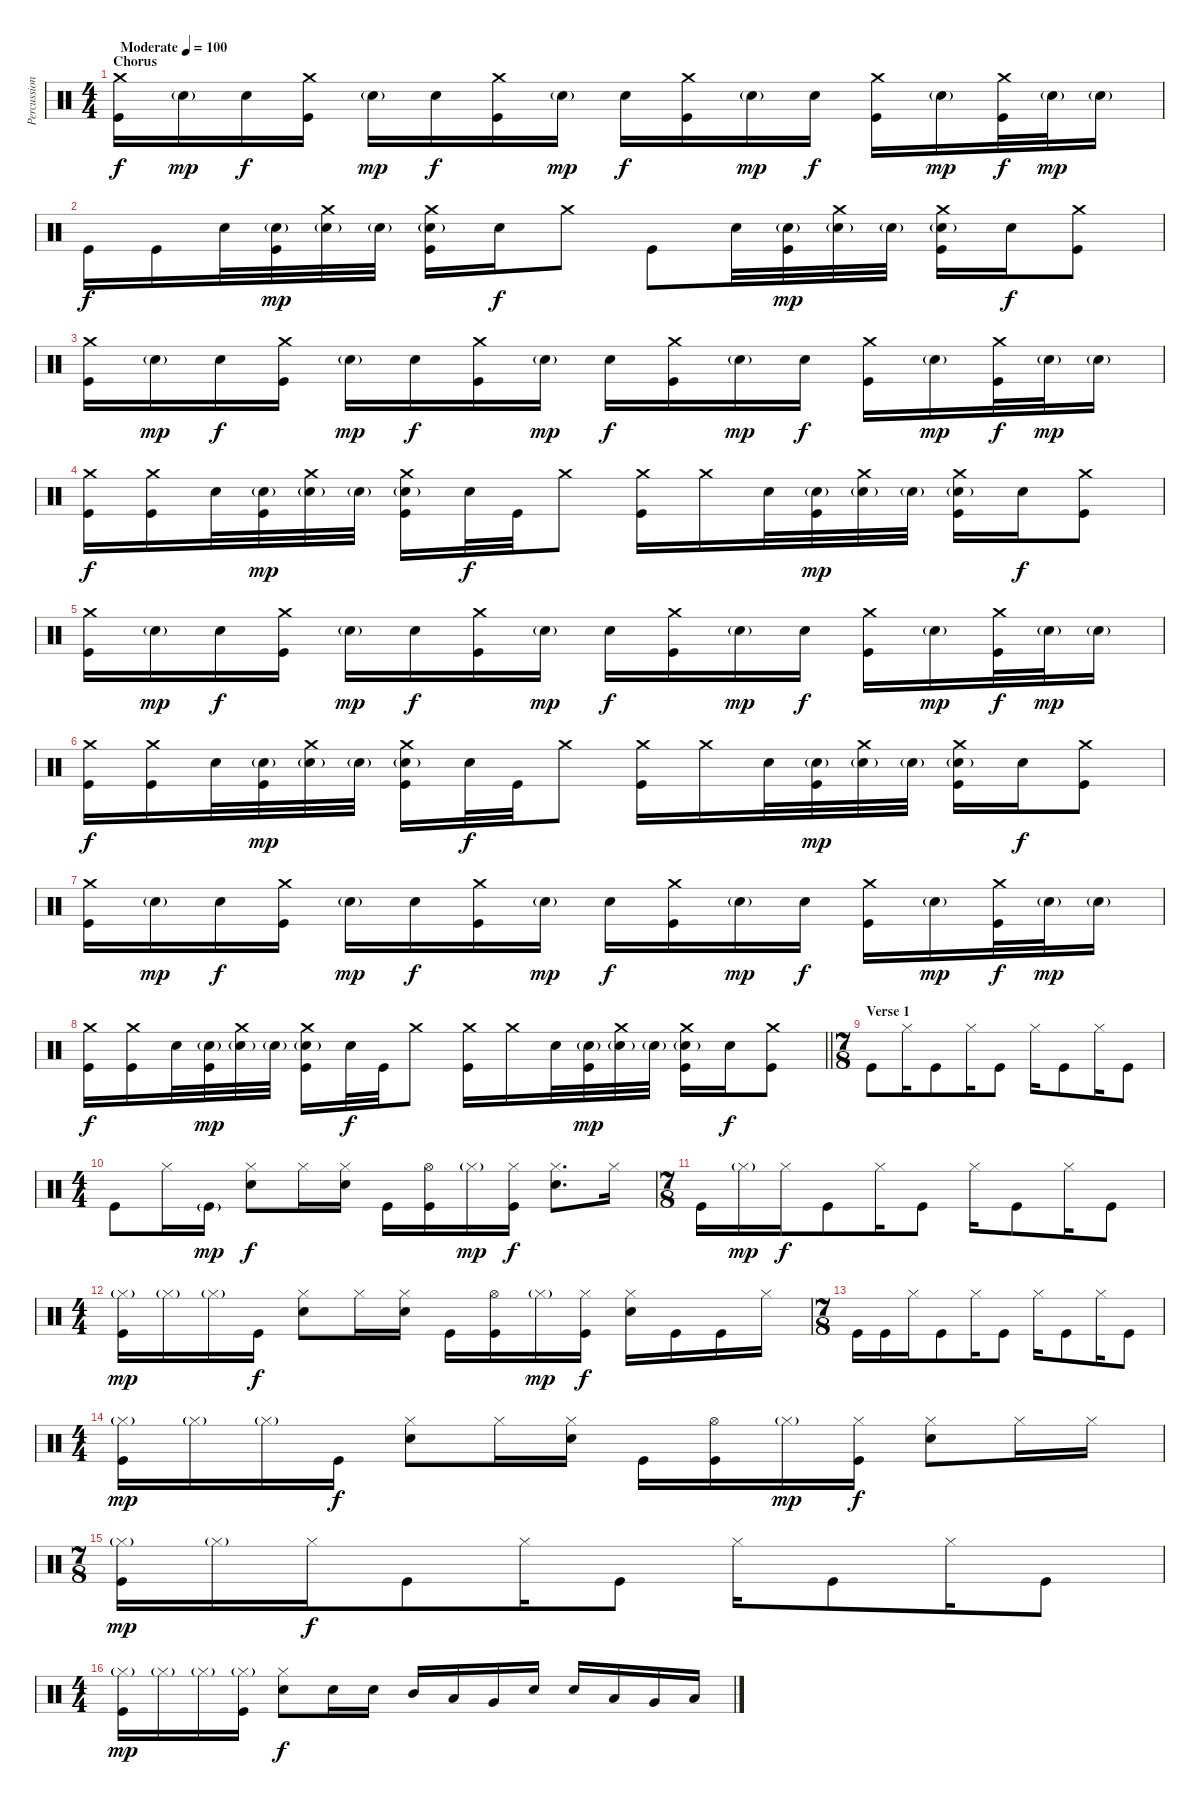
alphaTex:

\track ("Percussion" "Percussion") {instrument percussion}
\staff {score}
\articulation defaults
\ts (4 4)
\section ("" "Chorus")
\tempo (100 "Moderate")
\clef neutral
\ks c
("Crash medium (hit)" "Kick (hit)").16{dy f} "Snare (hit) 2"{g}.16{dy mp} "Snare (hit) 2".16{dy f} ("Crash medium (hit)" "Kick (hit)").16 "Snare (hit) 2"{g}.16{dy mp} "Snare (hit) 2".16{dy f} ("Crash medium (hit)" "Kick (hit)").16 "Snare (hit) 2"{g}.16{dy mp} "Snare (hit) 2".16{dy f} ("Crash medium (hit)" "Kick (hit)").16 "Snare (hit) 2"{g}.16{dy mp} "Snare (hit) 2".16{dy f} ("Crash medium (hit)" "Kick (hit)").16 "Snare (hit) 2"{g}.16{dy mp} ("Crash medium (hit)" "Kick (hit)").32{dy f} "Snare (hit) 2"{g}.32{dy mp} "Snare (hit) 2"{g}.16 |
"Kick (hit)".16{dy f} "Kick (hit)".16 "Snare (hit) 2".32 ("Snare (hit) 2"{g} "Kick (hit)").32{dy mp} ("Crash medium (hit)" "Snare (hit) 2"{g}).32 "Snare (hit) 2"{g}.32 ("Crash medium (hit)" "Snare (hit) 2"{g} "Kick (hit)").16 "Snare (hit) 2".16{dy f} "Crash medium (hit)".8 "Kick (hit)".8 "Snare (hit) 2".32 ("Snare (hit) 2"{g} "Kick (hit)").32{dy mp} ("Crash medium (hit)" "Snare (hit) 2"{g}).32 "Snare (hit) 2"{g}.32 ("Crash medium (hit)" "Snare (hit) 2"{g} "Kick (hit)").16 "Snare (hit) 2".16{dy f} ("Crash medium (hit)" "Kick (hit)").8 |
("Crash medium (hit)" "Kick (hit)").16 "Snare (hit) 2"{g}.16{dy mp} "Snare (hit) 2".16{dy f} ("Crash medium (hit)" "Kick (hit)").16 "Snare (hit) 2"{g}.16{dy mp} "Snare (hit) 2".16{dy f} ("Crash medium (hit)" "Kick (hit)").16 "Snare (hit) 2"{g}.16{dy mp} "Snare (hit) 2".16{dy f} ("Crash medium (hit)" "Kick (hit)").16 "Snare (hit) 2"{g}.16{dy mp} "Snare (hit) 2".16{dy f} ("Crash medium (hit)" "Kick (hit)").16 "Snare (hit) 2"{g}.16{dy mp} ("Crash medium (hit)" "Kick (hit)").32{dy f} "Snare (hit) 2"{g}.32{dy mp} "Snare (hit) 2"{g}.16 |
("Crash medium (hit)" "Kick (hit)").16{dy f} ("Crash medium (hit)" "Kick (hit)").16 "Snare (hit) 2".32 ("Snare (hit) 2"{g} "Kick (hit)").32{dy mp} ("Crash medium (hit)" "Snare (hit) 2"{g}).32 "Snare (hit) 2"{g}.32 ("Crash medium (hit)" "Snare (hit) 2"{g} "Kick (hit)").16 "Snare (hit) 2".32{dy f} "Kick (hit)".32 "Crash medium (hit)".8 ("Crash medium (hit)" "Kick (hit)").16 "Crash medium (hit)".16 "Snare (hit) 2".32 ("Snare (hit) 2"{g} "Kick (hit)").32{dy mp} ("Crash medium (hit)" "Snare (hit) 2"{g}).32 "Snare (hit) 2"{g}.32 ("Crash medium (hit)" "Snare (hit) 2"{g} "Kick (hit)").16 "Snare (hit) 2".16{dy f} ("Crash medium (hit)" "Kick (hit)").8 |
("Crash medium (hit)" "Kick (hit)").16 "Snare (hit) 2"{g}.16{dy mp} "Snare (hit) 2".16{dy f} ("Crash medium (hit)" "Kick (hit)").16 "Snare (hit) 2"{g}.16{dy mp} "Snare (hit) 2".16{dy f} ("Crash medium (hit)" "Kick (hit)").16 "Snare (hit) 2"{g}.16{dy mp} "Snare (hit) 2".16{dy f} ("Crash medium (hit)" "Kick (hit)").16 "Snare (hit) 2"{g}.16{dy mp} "Snare (hit) 2".16{dy f} ("Crash medium (hit)" "Kick (hit)").16 "Snare (hit) 2"{g}.16{dy mp} ("Crash medium (hit)" "Kick (hit)").32{dy f} "Snare (hit) 2"{g}.32{dy mp} "Snare (hit) 2"{g}.16 |
("Crash medium (hit)" "Kick (hit)").16{dy f} ("Crash medium (hit)" "Kick (hit)").16 "Snare (hit) 2".32 ("Snare (hit) 2"{g} "Kick (hit)").32{dy mp} ("Crash medium (hit)" "Snare (hit) 2"{g}).32 "Snare (hit) 2"{g}.32 ("Crash medium (hit)" "Snare (hit) 2"{g} "Kick (hit)").16 "Snare (hit) 2".32{dy f} "Kick (hit)".32 "Crash medium (hit)".8 ("Crash medium (hit)" "Kick (hit)").16 "Crash medium (hit)".16 "Snare (hit) 2".32 ("Snare (hit) 2"{g} "Kick (hit)").32{dy mp} ("Crash medium (hit)" "Snare (hit) 2"{g}).32 "Snare (hit) 2"{g}.32 ("Crash medium (hit)" "Snare (hit) 2"{g} "Kick (hit)").16 "Snare (hit) 2".16{dy f} ("Crash medium (hit)" "Kick (hit)").8 |
("Crash medium (hit)" "Kick (hit)").16 "Snare (hit) 2"{g}.16{dy mp} "Snare (hit) 2".16{dy f} ("Crash medium (hit)" "Kick (hit)").16 "Snare (hit) 2"{g}.16{dy mp} "Snare (hit) 2".16{dy f} ("Crash medium (hit)" "Kick (hit)").16 "Snare (hit) 2"{g}.16{dy mp} "Snare (hit) 2".16{dy f} ("Crash medium (hit)" "Kick (hit)").16 "Snare (hit) 2"{g}.16{dy mp} "Snare (hit) 2".16{dy f} ("Crash medium (hit)" "Kick (hit)").16 "Snare (hit) 2"{g}.16{dy mp} ("Crash medium (hit)" "Kick (hit)").32{dy f} "Snare (hit) 2"{g}.32{dy mp} "Snare (hit) 2"{g}.16 |
\barLineRight lightlight
("Crash medium (hit)" "Kick (hit)").16{dy f} ("Crash medium (hit)" "Kick (hit)").16 "Snare (hit) 2".32 ("Snare (hit) 2"{g} "Kick (hit)").32{dy mp} ("Crash medium (hit)" "Snare (hit) 2"{g}).32 "Snare (hit) 2"{g}.32 ("Crash medium (hit)" "Snare (hit) 2"{g} "Kick (hit)").16 "Snare (hit) 2".32{dy f} "Kick (hit)".32 "Crash medium (hit)".8 ("Crash medium (hit)" "Kick (hit)").16 "Crash medium (hit)".16 "Snare (hit) 2".32 ("Snare (hit) 2"{g} "Kick (hit)").32{dy mp} ("Crash medium (hit)" "Snare (hit) 2"{g}).32 "Snare (hit) 2"{g}.32 ("Crash medium (hit)" "Snare (hit) 2"{g} "Kick (hit)").16 "Snare (hit) 2".16{dy f} ("Crash medium (hit)" "Kick (hit)").8 |
\ts (7 8)
\section ("" "Verse 1")
"Kick (hit)".8 "Hi-Hat (closed)".16 "Kick (hit)".8 "Hi-Hat (closed)".16 "Kick (hit)".8 "Hi-Hat (closed)".16 "Kick (hit)".8 "Hi-Hat (closed)".16 "Kick (hit)".8 |
\ts (4 4)
"Kick (hit)".8 "Hi-Hat (closed)".16 "Kick (hit)"{g}.16{dy mp} ("Hi-Hat (closed)" "Snare (hit) 2").8{dy f} "Hi-Hat (closed)".16 ("Hi-Hat (closed)" "Snare (hit) 2").16 "Kick (hit)".16 ("Hi-Hat (open)" "Kick (hit)").16 "Hi-Hat (closed)"{g}.16{dy mp} ("Hi-Hat (closed)" "Kick (hit)").16{dy f} ("Hi-Hat (closed)" "Snare (hit) 2").8{d} "Hi-Hat (closed)".16 |
\ts (7 8)
"Kick (hit)".16 "Hi-Hat (closed)"{g}.16{dy mp} "Hi-Hat (closed)".16{dy f} "Kick (hit)".8 "Hi-Hat (closed)".16 "Kick (hit)".8 "Hi-Hat (closed)".16 "Kick (hit)".8 "Hi-Hat (closed)".16 "Kick (hit)".8 |
\ts (4 4)
("Hi-Hat (closed)"{g} "Kick (hit)").16{dy mp} "Hi-Hat (closed)"{g}.16 "Hi-Hat (closed)"{g}.16 "Kick (hit)".16{dy f} ("Hi-Hat (closed)" "Snare (hit) 2").8 "Hi-Hat (closed)".16 ("Hi-Hat (closed)" "Snare (hit) 2").16 "Kick (hit)".16 ("Hi-Hat (open)" "Kick (hit)").16 "Hi-Hat (closed)"{g}.16{dy mp} ("Hi-Hat (closed)" "Kick (hit)").16{dy f} ("Hi-Hat (closed)" "Snare (hit) 2").16 "Kick (hit)".16 "Kick (hit)".16 "Hi-Hat (closed)".16 |
\ts (7 8)
"Kick (hit)".16 "Kick (hit)".16 "Hi-Hat (closed)".16 "Kick (hit)".8 "Hi-Hat (closed)".16 "Kick (hit)".8 "Hi-Hat (closed)".16 "Kick (hit)".8 "Hi-Hat (closed)".16 "Kick (hit)".8 |
\ts (4 4)
("Hi-Hat (closed)"{g} "Kick (hit)").16{dy mp} "Hi-Hat (closed)"{g}.16 "Hi-Hat (closed)"{g}.16 "Kick (hit)".16{dy f} ("Hi-Hat (closed)" "Snare (hit) 2").8 "Hi-Hat (closed)".16 ("Hi-Hat (closed)" "Snare (hit) 2").16 "Kick (hit)".16 ("Hi-Hat (open)" "Kick (hit)").16 "Hi-Hat (closed)"{g}.16{dy mp} ("Hi-Hat (closed)" "Kick (hit)").16{dy f} ("Hi-Hat (closed)" "Snare (hit) 2").8 "Hi-Hat (closed)".16 "Hi-Hat (closed)".16 |
\ts (7 8)
("Hi-Hat (closed)"{g} "Kick (hit)").16{dy mp} "Hi-Hat (closed)"{g}.16 "Hi-Hat (closed)".16{dy f} "Kick (hit)".8 "Hi-Hat (closed)".16 "Kick (hit)".8 "Hi-Hat (closed)".16 "Kick (hit)".8 "Hi-Hat (closed)".16 "Kick (hit)".8 |
\ts (4 4)
("Hi-Hat (closed)"{g} "Kick (hit)").16{dy mp} "Hi-Hat (closed)"{g}.16 "Hi-Hat (closed)"{g}.16 ("Hi-Hat (closed)"{g} "Kick (hit)").16 ("Hi-Hat (closed)" "Snare (hit) 2").8{dy f} "Snare (hit) 2".16 "Snare (hit) 2".16 "Mid Tom (hit)".16 "Low Tom (hit)".16 "Very Low Tom (hit)".16 "Snare (hit) 2".16 "Snare (hit) 2".16 "Low Tom (hit)".16 "Very Low Tom (hit)".16 "Low Floor Tom (hit)".16
